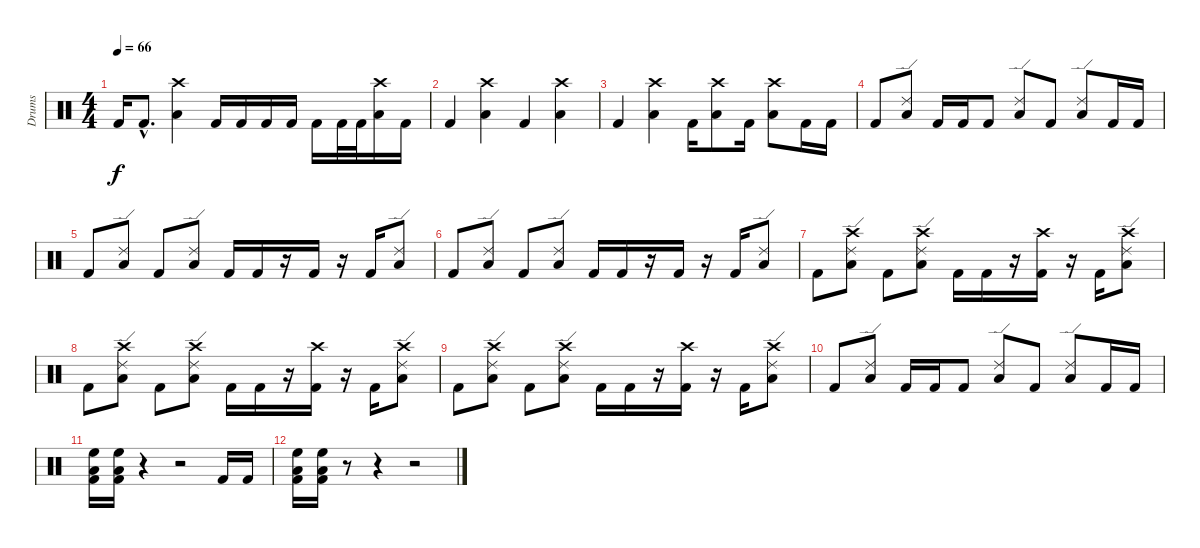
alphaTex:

\track ("Drums" "Drums") {instrument percussion}
\staff {score}
\articulation defaults
\ts (4 4)
\tempo 66
\clef neutral
\ks c "Kick (hit) 2".16{dy f} "Kick (hit) 2"{hac}.8{d}
("Crash high (hit)" "Low Tom (hit)").4 "Kick (hit) 2".16 "Kick (hit) 2".16 "Kick (hit) 2".16 "Kick (hit) 2".16 "Kick (hit) 2".16 "Kick (hit) 2".32 "Kick (hit) 2".32 ("Crash high (hit)" "Low Tom (hit)").16 "Kick (hit) 2".16 |
"Kick (hit) 2".4 ("Crash high (hit)" "Low Tom (hit)").4 "Kick (hit) 2".4 ("Crash high (hit)" "Low Tom (hit)").4 |
"Kick (hit) 2".4 ("Crash high (hit)" "Low Tom (hit)").4 "Kick (hit) 2".16 ("Crash high (hit)" "Low Tom (hit)").8 "Kick (hit) 2".16 ("Crash high (hit)" "Low Tom (hit)").8 "Kick (hit) 2".16 "Kick (hit) 2".16 |
"Kick (hit) 2".8 ("Ride (edge) 2" "Low Tom (hit)").8 "Kick (hit) 2".16 "Kick (hit) 2".16 "Kick (hit) 2".8 ("Ride (edge) 2" "Low Tom (hit)").8 "Kick (hit) 2".8 ("Ride (edge) 2" "Low Tom (hit)").8 "Kick (hit) 2".16 "Kick (hit) 2".16 |
"Kick (hit) 2".8 ("Ride (edge) 2" "Low Tom (hit)").8 "Kick (hit) 2".8 ("Ride (edge) 2" "Low Tom (hit)").8 "Kick (hit) 2".16 "Kick (hit) 2".16 r.16 "Kick (hit) 2".16 r.16 "Kick (hit) 2".16 ("Ride (edge) 2" "Low Tom (hit)").8 |
"Kick (hit) 2".8 ("Ride (edge) 2" "Low Tom (hit)").8 "Kick (hit) 2".8 ("Ride (edge) 2" "Low Tom (hit)").8 "Kick (hit) 2".16 "Kick (hit) 2".16 r.16 "Kick (hit) 2".16 r.16 "Kick (hit) 2".16 ("Ride (edge) 2" "Low Tom (hit)").8 |
"Kick (hit) 2".8 ("Crash high (hit)" "Ride (edge) 2" "Low Tom (hit)").8 "Kick (hit) 2".8 ("Crash high (hit)" "Ride (edge) 2" "Low Tom (hit)").8 "Kick (hit) 2".16 "Kick (hit) 2".16 r.16 ("Crash high (hit)" "Kick (hit) 2").16 r.16 "Kick (hit) 2".16 ("Crash high (hit)" "Ride (edge) 2" "Low Tom (hit)").8 |
"Kick (hit) 2".8 ("Crash high (hit)" "Ride (edge) 2" "Low Tom (hit)").8 "Kick (hit) 2".8 ("Crash high (hit)" "Ride (edge) 2" "Low Tom (hit)").8 "Kick (hit) 2".16 "Kick (hit) 2".16 r.16 ("Crash high (hit)" "Kick (hit) 2").16 r.16 "Kick (hit) 2".16 ("Crash high (hit)" "Ride (edge) 2" "Low Tom (hit)").8 |
"Kick (hit) 2".8 ("Crash high (hit)" "Ride (edge) 2" "Low Tom (hit)").8 "Kick (hit) 2".8 ("Crash high (hit)" "Ride (edge) 2" "Low Tom (hit)").8 "Kick (hit) 2".16 "Kick (hit) 2".16 r.16 ("Crash high (hit)" "Kick (hit) 2").16 r.16 "Kick (hit) 2".16 ("Crash high (hit)" "Ride (edge) 2" "Low Tom (hit)").8 |
"Kick (hit) 2".8 ("Ride (edge) 2" "Low Tom (hit)").8 "Kick (hit) 2".16 "Kick (hit) 2".16 "Kick (hit) 2".8 ("Ride (edge) 2" "Low Tom (hit)").8 "Kick (hit) 2".8 ("Ride (edge) 2" "Low Tom (hit)").8 "Kick (hit) 2".16 "Kick (hit) 2".16 |
("High Floor Tom (hit)" "Low Tom (hit)" "Kick (hit) 2").16 ("High Floor Tom (hit)" "Low Tom (hit)" "Kick (hit) 2").16 r.4 r.2 "Kick (hit) 2".16 "Kick (hit) 2".16 |
("High Floor Tom (hit)" "Low Tom (hit)" "Kick (hit) 2").16 ("High Floor Tom (hit)" "Low Tom (hit)" "Kick (hit) 2").16 r.8 r.4 r.2
